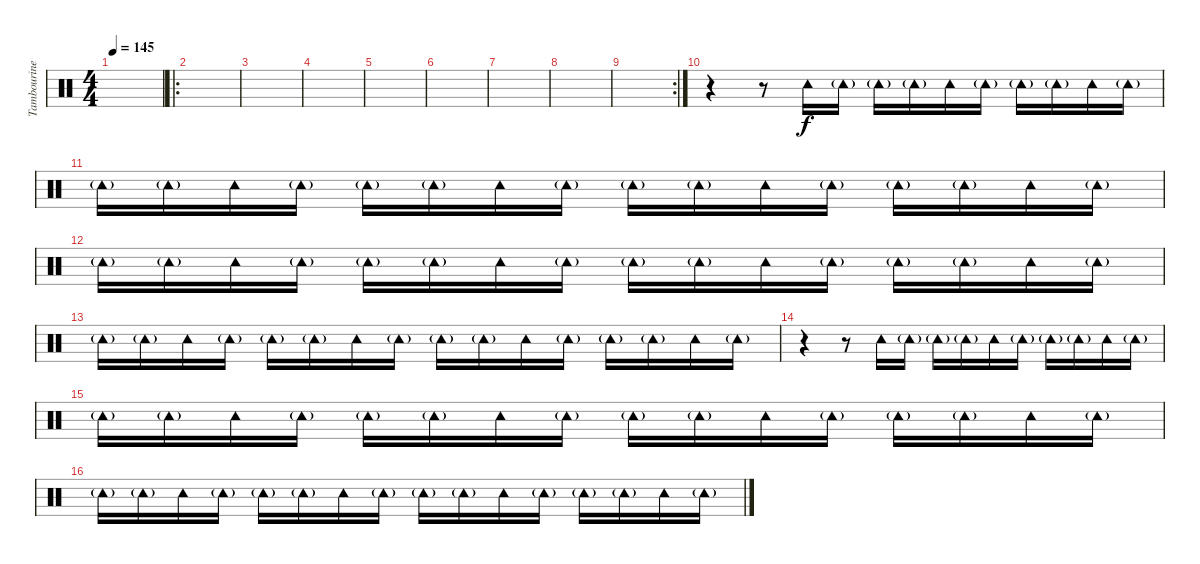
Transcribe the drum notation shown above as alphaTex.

\track ("Tambourine" "Tambourine") {instrument percussion}
\staff {score}
\articulation defaults
\ts (4 4)
\tempo 145
\clef neutral
\ks c
|
\ro
|
|
|
|
|
|
|
\rc 2
|
r.4 r.8 "Tambourine (hit)".16 "Tambourine (hit)"{g}.16 "Tambourine (hit)"{g}.16 "Tambourine (hit)"{g}.16 "Tambourine (hit)".16 "Tambourine (hit)"{g}.16 "Tambourine (hit)"{g}.16 "Tambourine (hit)"{g}.16 "Tambourine (hit)".16 "Tambourine (hit)"{g}.16 |
"Tambourine (hit)"{g}.16 "Tambourine (hit)"{g}.16 "Tambourine (hit)".16 "Tambourine (hit)"{g}.16 "Tambourine (hit)"{g}.16 "Tambourine (hit)"{g}.16 "Tambourine (hit)".16 "Tambourine (hit)"{g}.16 "Tambourine (hit)"{g}.16 "Tambourine (hit)"{g}.16 "Tambourine (hit)".16 "Tambourine (hit)"{g}.16 "Tambourine (hit)"{g}.16 "Tambourine (hit)"{g}.16 "Tambourine (hit)".16 "Tambourine (hit)"{g}.16 |
"Tambourine (hit)"{g}.16 "Tambourine (hit)"{g}.16 "Tambourine (hit)".16 "Tambourine (hit)"{g}.16 "Tambourine (hit)"{g}.16 "Tambourine (hit)"{g}.16 "Tambourine (hit)".16 "Tambourine (hit)"{g}.16 "Tambourine (hit)"{g}.16 "Tambourine (hit)"{g}.16 "Tambourine (hit)".16 "Tambourine (hit)"{g}.16 "Tambourine (hit)"{g}.16 "Tambourine (hit)"{g}.16 "Tambourine (hit)".16 "Tambourine (hit)"{g}.16 |
"Tambourine (hit)"{g}.16 "Tambourine (hit)"{g}.16 "Tambourine (hit)".16 "Tambourine (hit)"{g}.16 "Tambourine (hit)"{g}.16 "Tambourine (hit)"{g}.16 "Tambourine (hit)".16 "Tambourine (hit)"{g}.16 "Tambourine (hit)"{g}.16 "Tambourine (hit)"{g}.16 "Tambourine (hit)".16 "Tambourine (hit)"{g}.16 "Tambourine (hit)"{g}.16 "Tambourine (hit)"{g}.16 "Tambourine (hit)".16 "Tambourine (hit)"{g}.16 |
r.4 r.8 "Tambourine (hit)".16 "Tambourine (hit)"{g}.16 "Tambourine (hit)"{g}.16 "Tambourine (hit)"{g}.16 "Tambourine (hit)".16 "Tambourine (hit)"{g}.16 "Tambourine (hit)"{g}.16 "Tambourine (hit)"{g}.16 "Tambourine (hit)".16 "Tambourine (hit)"{g}.16 |
"Tambourine (hit)"{g}.16 "Tambourine (hit)"{g}.16 "Tambourine (hit)".16 "Tambourine (hit)"{g}.16 "Tambourine (hit)"{g}.16 "Tambourine (hit)"{g}.16 "Tambourine (hit)".16 "Tambourine (hit)"{g}.16 "Tambourine (hit)"{g}.16 "Tambourine (hit)"{g}.16 "Tambourine (hit)".16 "Tambourine (hit)"{g}.16 "Tambourine (hit)"{g}.16 "Tambourine (hit)"{g}.16 "Tambourine (hit)".16 "Tambourine (hit)"{g}.16 |
"Tambourine (hit)"{g}.16 "Tambourine (hit)"{g}.16 "Tambourine (hit)".16 "Tambourine (hit)"{g}.16 "Tambourine (hit)"{g}.16 "Tambourine (hit)"{g}.16 "Tambourine (hit)".16 "Tambourine (hit)"{g}.16 "Tambourine (hit)"{g}.16 "Tambourine (hit)"{g}.16 "Tambourine (hit)".16 "Tambourine (hit)"{g}.16 "Tambourine (hit)"{g}.16 "Tambourine (hit)"{g}.16 "Tambourine (hit)".16 "Tambourine (hit)"{g}.16
